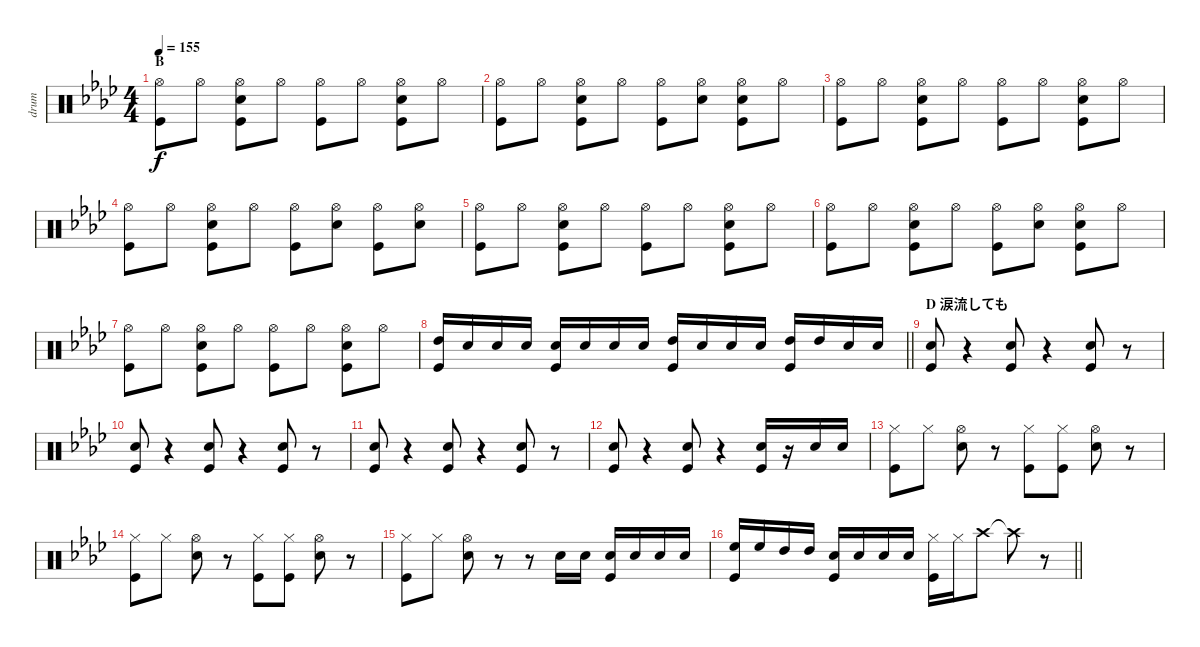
\track ("drum" "drum") {instrument percussion}
\staff {score}
\articulation defaults
\ts (4 4)
\section ("" "B")
\tempo 155
\clef neutral
\ks ab
("Hi-Hat (open)" "Kick (hit)").8{dy f} "Hi-Hat (open)".8 ("Hi-Hat (open)" "Snare (hit) 2" "Kick (hit)").8 "Hi-Hat (open)".8 ("Hi-Hat (open)" "Kick (hit)").8 "Hi-Hat (open)".8 ("Hi-Hat (open)" "Snare (hit) 2" "Kick (hit)").8 "Hi-Hat (open)".8 |
("Hi-Hat (open)" "Kick (hit)").8 "Hi-Hat (open)".8 ("Hi-Hat (open)" "Snare (hit) 2" "Kick (hit)").8 "Hi-Hat (open)".8 ("Hi-Hat (open)" "Kick (hit)").8 ("Hi-Hat (open)" "Snare (hit) 2").8 ("Hi-Hat (open)" "Snare (hit) 2" "Kick (hit)").8 "Hi-Hat (open)".8 |
("Hi-Hat (open)" "Kick (hit)").8 "Hi-Hat (open)".8 ("Hi-Hat (open)" "Snare (hit) 2" "Kick (hit)").8 "Hi-Hat (open)".8 ("Hi-Hat (open)" "Kick (hit)").8 "Hi-Hat (open)".8 ("Hi-Hat (open)" "Snare (hit) 2" "Kick (hit)").8 "Hi-Hat (open)".8 |
("Hi-Hat (open)" "Kick (hit)").8 "Hi-Hat (open)".8 ("Hi-Hat (open)" "Snare (hit) 2" "Kick (hit)").8 "Hi-Hat (open)".8 ("Hi-Hat (open)" "Kick (hit)").8 ("Hi-Hat (open)" "Snare (hit) 2").8 ("Hi-Hat (open)" "Kick (hit)").8 ("Hi-Hat (open)" "Snare (hit) 2").8 |
("Hi-Hat (open)" "Kick (hit)").8 "Hi-Hat (open)".8 ("Hi-Hat (open)" "Snare (hit) 2" "Kick (hit)").8 "Hi-Hat (open)".8 ("Hi-Hat (open)" "Kick (hit)").8 "Hi-Hat (open)".8 ("Hi-Hat (open)" "Snare (hit) 2" "Kick (hit)").8 "Hi-Hat (open)".8 |
("Hi-Hat (open)" "Kick (hit)").8 "Hi-Hat (open)".8 ("Hi-Hat (open)" "Snare (hit) 2" "Kick (hit)").8 "Hi-Hat (open)".8 ("Hi-Hat (open)" "Kick (hit)").8 ("Hi-Hat (open)" "Snare (hit) 2").8 ("Hi-Hat (open)" "Snare (hit) 2" "Kick (hit)").8 "Hi-Hat (open)".8 |
("Hi-Hat (open)" "Kick (hit)").8 "Hi-Hat (open)".8 ("Hi-Hat (open)" "Snare (hit) 2" "Kick (hit)").8 "Hi-Hat (open)".8 ("Hi-Hat (open)" "Kick (hit)").8 "Hi-Hat (open)".8 ("Hi-Hat (open)" "Snare (hit) 2" "Kick (hit)").8 "Hi-Hat (open)".8 |
\barLineRight lightlight
("High Tom (hit)" "Kick (hit)").16 "Snare (hit) 2".16 "Snare (hit) 2".16 "Snare (hit) 2".16 ("Snare (hit) 2" "Kick (hit)").16 "Snare (hit) 2".16 "Snare (hit) 2".16 "Snare (hit) 2".16 ("High Tom (hit)" "Kick (hit)").16 "Snare (hit) 2".16 "Snare (hit) 2".16 "Snare (hit) 2".16 ("High Tom (hit)" "Kick (hit)").16 "High Tom (hit)".16 "Snare (hit) 2".16 "Snare (hit) 2".16 |
\section ("" "D 涙流しても")
("Snare (hit) 2" "Kick (hit)").8 r.4 ("Snare (hit) 2" "Kick (hit)").8 r.4 ("Snare (hit) 2" "Kick (hit)").8 r.8 |
("Snare (hit) 2" "Kick (hit)").8 r.4 ("Snare (hit) 2" "Kick (hit)").8 r.4 ("Snare (hit) 2" "Kick (hit)").8 r.8 |
("Snare (hit) 2" "Kick (hit)").8 r.4 ("Snare (hit) 2" "Kick (hit)").8 r.4 ("Snare (hit) 2" "Kick (hit)").8 r.8 |
("Snare (hit) 2" "Kick (hit)").8 r.4 ("Snare (hit) 2" "Kick (hit)").8 r.4 ("Snare (hit) 2" "Kick (hit)").16 r.16 "Snare (hit) 2".16 "Snare (hit) 2".16 |
("Hi-Hat (closed)" "Kick (hit)").8 "Hi-Hat (closed)".8 ("Hi-Hat (open)" "Snare (hit) 2").8 r.8 ("Hi-Hat (closed)" "Kick (hit)").8 ("Hi-Hat (closed)" "Kick (hit)").8 ("Hi-Hat (open)" "Snare (hit) 2").8 r.8 |
("Hi-Hat (closed)" "Kick (hit)").8 "Hi-Hat (closed)".8 ("Hi-Hat (open)" "Snare (hit) 2").8 r.8 ("Hi-Hat (closed)" "Kick (hit)").8 ("Hi-Hat (closed)" "Kick (hit)").8 ("Hi-Hat (open)" "Snare (hit) 2").8 r.8 |
("Hi-Hat (closed)" "Kick (hit)").8 "Hi-Hat (closed)".8 ("Hi-Hat (open)" "Snare (hit) 2").8 r.8 r.8 "Snare (hit) 2".16 "Snare (hit) 2".16 ("Snare (hit) 2" "Kick (hit)").16 "Snare (hit) 2".16 "Snare (hit) 2".16 "Snare (hit) 2".16 |
\barLineRight lightlight
("High Floor Tom (hit)" "Kick (hit)").16 "High Floor Tom (hit)".16 "High Tom (hit)".16 "High Tom (hit)".16 ("Snare (hit) 2" "Kick (hit)").16 "Snare (hit) 2".16 "Snare (hit) 2".16 "Snare (hit) 2".16 ("Hi-Hat (closed)" "Kick (hit)").16 "Hi-Hat (closed)".16 "Crash high (hit)".8 "Crash high (hit)"{t}.8 r.8
